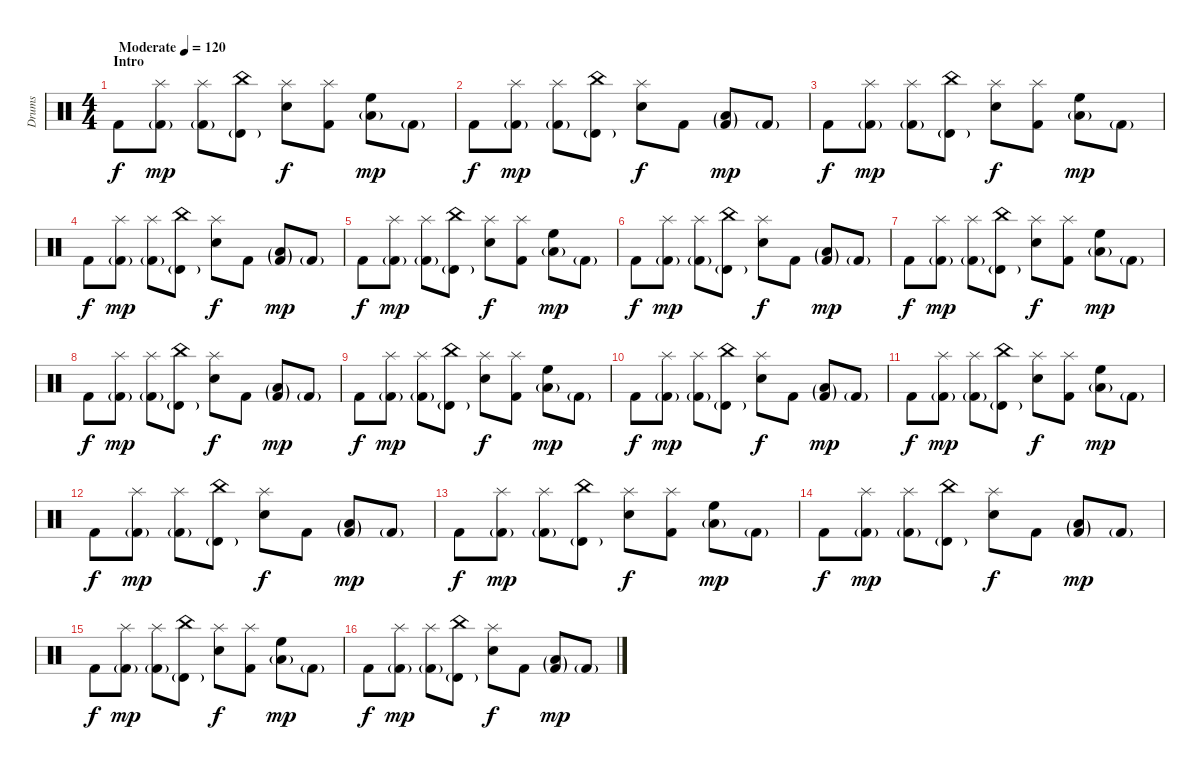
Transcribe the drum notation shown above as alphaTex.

\track ("Drums" "Drums") {instrument percussion}
\staff {score}
\articulation defaults
\ts (4 4)
\section ("" "Intro")
\tempo (120 "Moderate")
\clef neutral
\ks c "Kick (hit) 2".8{dy f}
("Splash (hit)" "Kick (hit) 2"{g}).8{dy mp} ("Splash (hit)" "Kick (hit) 2"{g}).8 ("China (hit)" "Timbale high (hit)"{g}).8 ("Splash (hit)" "Electric Snare (hit)").8{dy f} ("Splash (hit)" "Kick (hit) 2").8 ("High Floor Tom (hit)" "Low Tom (hit)"{g}).8{dy mp} "Kick (hit) 2"{g}.8 |
"Kick (hit) 2".8{dy f} ("Splash (hit)" "Kick (hit) 2"{g}).8{dy mp} ("Splash (hit)" "Kick (hit) 2"{g}).8 ("China (hit)" "Timbale high (hit)"{g}).8 ("Splash (hit)" "Electric Snare (hit)").8{dy f} "Kick (hit) 2".8 ("Low Tom (hit)"{g} "Kick (hit) 2"{g}).8{dy mp} "Kick (hit) 2"{g}.8 |
"Kick (hit) 2".8{dy f} ("Splash (hit)" "Kick (hit) 2"{g}).8{dy mp} ("Splash (hit)" "Kick (hit) 2"{g}).8 ("China (hit)" "Timbale high (hit)"{g}).8 ("Splash (hit)" "Electric Snare (hit)").8{dy f} ("Splash (hit)" "Kick (hit) 2").8 ("High Floor Tom (hit)" "Low Tom (hit)"{g}).8{dy mp} "Kick (hit) 2"{g}.8 |
"Kick (hit) 2".8{dy f} ("Splash (hit)" "Kick (hit) 2"{g}).8{dy mp} ("Splash (hit)" "Kick (hit) 2"{g}).8 ("China (hit)" "Timbale high (hit)"{g}).8 ("Splash (hit)" "Electric Snare (hit)").8{dy f} "Kick (hit) 2".8 ("Low Tom (hit)"{g} "Kick (hit) 2"{g}).8{dy mp} "Kick (hit) 2"{g}.8 |
"Kick (hit) 2".8{dy f} ("Splash (hit)" "Kick (hit) 2"{g}).8{dy mp} ("Splash (hit)" "Kick (hit) 2"{g}).8 ("China (hit)" "Timbale high (hit)"{g}).8 ("Splash (hit)" "Electric Snare (hit)").8{dy f} ("Splash (hit)" "Kick (hit) 2").8 ("High Floor Tom (hit)" "Low Tom (hit)"{g}).8{dy mp} "Kick (hit) 2"{g}.8 |
"Kick (hit) 2".8{dy f} ("Splash (hit)" "Kick (hit) 2"{g}).8{dy mp} ("Splash (hit)" "Kick (hit) 2"{g}).8 ("China (hit)" "Timbale high (hit)"{g}).8 ("Splash (hit)" "Electric Snare (hit)").8{dy f} "Kick (hit) 2".8 ("Low Tom (hit)"{g} "Kick (hit) 2"{g}).8{dy mp} "Kick (hit) 2"{g}.8 |
"Kick (hit) 2".8{dy f} ("Splash (hit)" "Kick (hit) 2"{g}).8{dy mp} ("Splash (hit)" "Kick (hit) 2"{g}).8 ("China (hit)" "Timbale high (hit)"{g}).8 ("Splash (hit)" "Electric Snare (hit)").8{dy f} ("Splash (hit)" "Kick (hit) 2").8 ("High Floor Tom (hit)" "Low Tom (hit)"{g}).8{dy mp} "Kick (hit) 2"{g}.8 |
"Kick (hit) 2".8{dy f} ("Splash (hit)" "Kick (hit) 2"{g}).8{dy mp} ("Splash (hit)" "Kick (hit) 2"{g}).8 ("China (hit)" "Timbale high (hit)"{g}).8 ("Splash (hit)" "Electric Snare (hit)").8{dy f} "Kick (hit) 2".8 ("Low Tom (hit)"{g} "Kick (hit) 2"{g}).8{dy mp} "Kick (hit) 2"{g}.8 |
"Kick (hit) 2".8{dy f} ("Splash (hit)" "Kick (hit) 2"{g}).8{dy mp} ("Splash (hit)" "Kick (hit) 2"{g}).8 ("China (hit)" "Timbale high (hit)"{g}).8 ("Splash (hit)" "Electric Snare (hit)").8{dy f} ("Splash (hit)" "Kick (hit) 2").8 ("High Floor Tom (hit)" "Low Tom (hit)"{g}).8{dy mp} "Kick (hit) 2"{g}.8 |
"Kick (hit) 2".8{dy f} ("Splash (hit)" "Kick (hit) 2"{g}).8{dy mp} ("Splash (hit)" "Kick (hit) 2"{g}).8 ("China (hit)" "Timbale high (hit)"{g}).8 ("Splash (hit)" "Electric Snare (hit)").8{dy f} "Kick (hit) 2".8 ("Low Tom (hit)"{g} "Kick (hit) 2"{g}).8{dy mp} "Kick (hit) 2"{g}.8 |
"Kick (hit) 2".8{dy f} ("Splash (hit)" "Kick (hit) 2"{g}).8{dy mp} ("Splash (hit)" "Kick (hit) 2"{g}).8 ("China (hit)" "Timbale high (hit)"{g}).8 ("Splash (hit)" "Electric Snare (hit)").8{dy f} ("Splash (hit)" "Kick (hit) 2").8 ("High Floor Tom (hit)" "Low Tom (hit)"{g}).8{dy mp} "Kick (hit) 2"{g}.8 |
"Kick (hit) 2".8{dy f} ("Splash (hit)" "Kick (hit) 2"{g}).8{dy mp} ("Splash (hit)" "Kick (hit) 2"{g}).8 ("China (hit)" "Timbale high (hit)"{g}).8 ("Splash (hit)" "Electric Snare (hit)").8{dy f} "Kick (hit) 2".8 ("Low Tom (hit)"{g} "Kick (hit) 2"{g}).8{dy mp} "Kick (hit) 2"{g}.8 |
"Kick (hit) 2".8{dy f} ("Splash (hit)" "Kick (hit) 2"{g}).8{dy mp} ("Splash (hit)" "Kick (hit) 2"{g}).8 ("China (hit)" "Timbale high (hit)"{g}).8 ("Splash (hit)" "Electric Snare (hit)").8{dy f} ("Splash (hit)" "Kick (hit) 2").8 ("High Floor Tom (hit)" "Low Tom (hit)"{g}).8{dy mp} "Kick (hit) 2"{g}.8 |
"Kick (hit) 2".8{dy f} ("Splash (hit)" "Kick (hit) 2"{g}).8{dy mp} ("Splash (hit)" "Kick (hit) 2"{g}).8 ("China (hit)" "Timbale high (hit)"{g}).8 ("Splash (hit)" "Electric Snare (hit)").8{dy f} "Kick (hit) 2".8 ("Low Tom (hit)"{g} "Kick (hit) 2"{g}).8{dy mp} "Kick (hit) 2"{g}.8 |
"Kick (hit) 2".8{dy f} ("Splash (hit)" "Kick (hit) 2"{g}).8{dy mp} ("Splash (hit)" "Kick (hit) 2"{g}).8 ("China (hit)" "Timbale high (hit)"{g}).8 ("Splash (hit)" "Electric Snare (hit)").8{dy f} ("Splash (hit)" "Kick (hit) 2").8 ("High Floor Tom (hit)" "Low Tom (hit)"{g}).8{dy mp} "Kick (hit) 2"{g}.8 |
"Kick (hit) 2".8{dy f} ("Splash (hit)" "Kick (hit) 2"{g}).8{dy mp} ("Splash (hit)" "Kick (hit) 2"{g}).8 ("China (hit)" "Timbale high (hit)"{g}).8 ("Splash (hit)" "Electric Snare (hit)").8{dy f} "Kick (hit) 2".8 ("Low Tom (hit)"{g} "Kick (hit) 2"{g}).8{dy mp} "Kick (hit) 2"{g}.8
